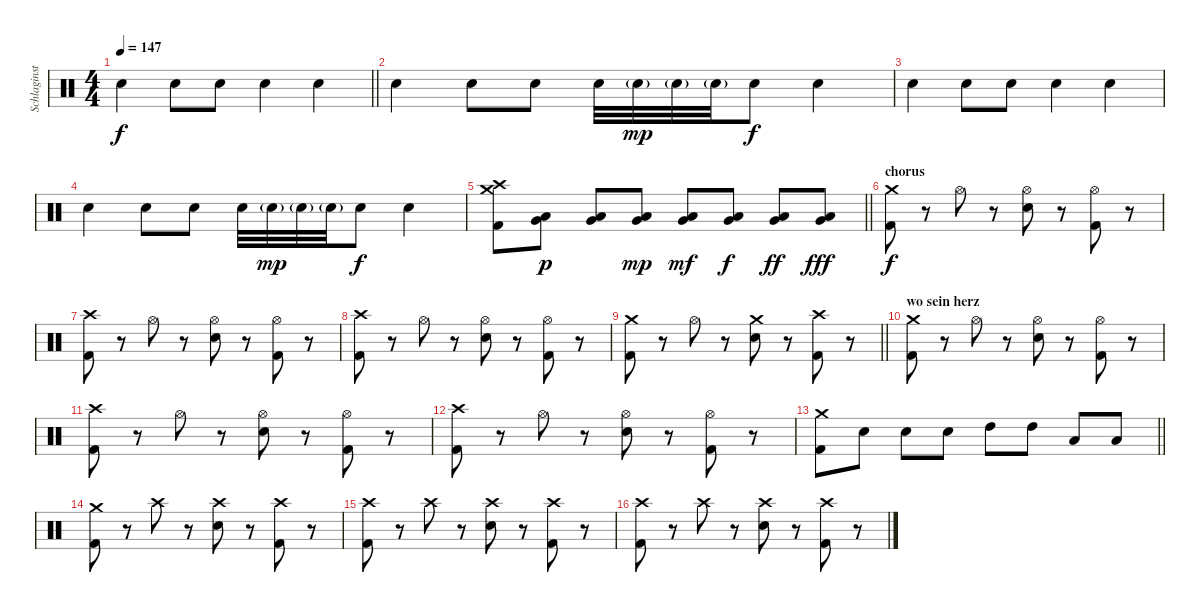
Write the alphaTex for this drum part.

\track ("Schlaginstrumente - Auswahl" "Schlaginst") {instrument percussion}
\staff {score}
\articulation defaults
\ts (4 4)
\tempo 147
\clef neutral
\barLineRight lightlight
\ks c "Snare (hit) 2".4{dy f} "Snare (hit) 2".8 "Snare (hit) 2".8 "Snare (hit) 2".4 "Snare (hit) 2".4
|
"Snare (hit) 2".4 "Snare (hit) 2".8 "Snare (hit) 2".8 "Snare (hit) 2".32 "Electric Snare (hit)"{g}.32{dy mp} "Electric Snare (hit)"{g}.32 "Electric Snare (hit)"{g}.32 "Snare (hit) 2".8{dy f} "Snare (hit) 2".4 |
"Snare (hit) 2".4 "Snare (hit) 2".8 "Snare (hit) 2".8 "Snare (hit) 2".4 "Snare (hit) 2".4 |
"Snare (hit) 2".4 "Snare (hit) 2".8 "Snare (hit) 2".8 "Snare (hit) 2".32 "Electric Snare (hit)"{g}.32{dy mp} "Electric Snare (hit)"{g}.32 "Electric Snare (hit)"{g}.32 "Snare (hit) 2".8{dy f} "Snare (hit) 2".4 |
\barLineRight lightlight
("Crash high (hit)" "Crash medium (hit)" "Kick (hit) 2").8{volume 13} ("Very Low Tom (hit)" "Low Floor Tom (hit)").8{dy p} ("Very Low Tom (hit)" "Low Floor Tom (hit)").8 ("Very Low Tom (hit)" "Low Floor Tom (hit)").8{dy mp} ("Very Low Tom (hit)" "Low Floor Tom (hit)").8{dy mf} ("Very Low Tom (hit)" "Low Floor Tom (hit)").8{dy f} ("Very Low Tom (hit)" "Low Floor Tom (hit)").8{dy ff} ("Very Low Tom (hit)" "Low Floor Tom (hit)").8{dy fff} |
\section ("" "chorus")
("Crash medium (hit)" "Kick (hit) 2").8{dy f} r.8 "Hi-Hat (open)".8 r.8 ("Hi-Hat (open)" "Snare (hit) 2").8 r.8 ("Hi-Hat (open)" "Kick (hit) 2").8 r.8 |
("Crash high (hit)" "Kick (hit) 2").8 r.8 "Hi-Hat (open)".8 r.8 ("Hi-Hat (open)" "Snare (hit) 2").8 r.8 ("Hi-Hat (open)" "Kick (hit) 2").8 r.8 |
("Crash high (hit)" "Kick (hit) 2").8 r.8 "Hi-Hat (open)".8 r.8 ("Hi-Hat (open)" "Snare (hit) 2").8 r.8 ("Hi-Hat (open)" "Kick (hit) 2").8 r.8 |
\barLineRight lightlight
("Crash medium (hit)" "Kick (hit) 2").8 r.8 "Hi-Hat (open)".8 r.8 ("Crash medium (hit)" "Snare (hit) 2").8 r.8 ("Crash high (hit)" "Kick (hit) 2").8 r.8 |
\section ("" "wo sein herz")
("Crash medium (hit)" "Kick (hit) 2").8 r.8 "Hi-Hat (open)".8 r.8 ("Hi-Hat (open)" "Snare (hit) 2").8 r.8 ("Hi-Hat (open)" "Kick (hit) 2").8 r.8 |
("Crash high (hit)" "Kick (hit) 2").8 r.8 "Hi-Hat (open)".8 r.8 ("Hi-Hat (open)" "Snare (hit) 2").8 r.8 ("Hi-Hat (open)" "Kick (hit) 2").8 r.8 |
("Crash high (hit)" "Kick (hit) 2").8 r.8 "Hi-Hat (open)".8 r.8 ("Hi-Hat (open)" "Snare (hit) 2").8 r.8 ("Hi-Hat (open)" "Kick (hit) 2").8 r.8 |
\barLineRight lightlight
("Crash medium (hit)" "Kick (hit) 2").8 "Snare (hit) 2".8 "Snare (hit) 2".8 "Snare (hit) 2".8 "High Tom (hit)".8 "High Tom (hit)".8 "Low Tom (hit)".8 "Low Tom (hit)".8 |
("Crash medium (hit)" "Kick (hit) 2").8 r.8 "Crash high (hit)".8 r.8 ("Crash high (hit)" "Snare (hit) 2").8 r.8 ("Crash high (hit)" "Kick (hit) 2").8 r.8 |
("Crash high (hit)" "Kick (hit) 2").8 r.8 "Crash high (hit)".8 r.8 ("Crash high (hit)" "Snare (hit) 2").8 r.8 ("Crash high (hit)" "Kick (hit) 2").8 r.8 |
("Crash high (hit)" "Kick (hit) 2").8 r.8 "Crash high (hit)".8 r.8 ("Crash high (hit)" "Snare (hit) 2").8 r.8 ("Crash high (hit)" "Kick (hit) 2").8 r.8
